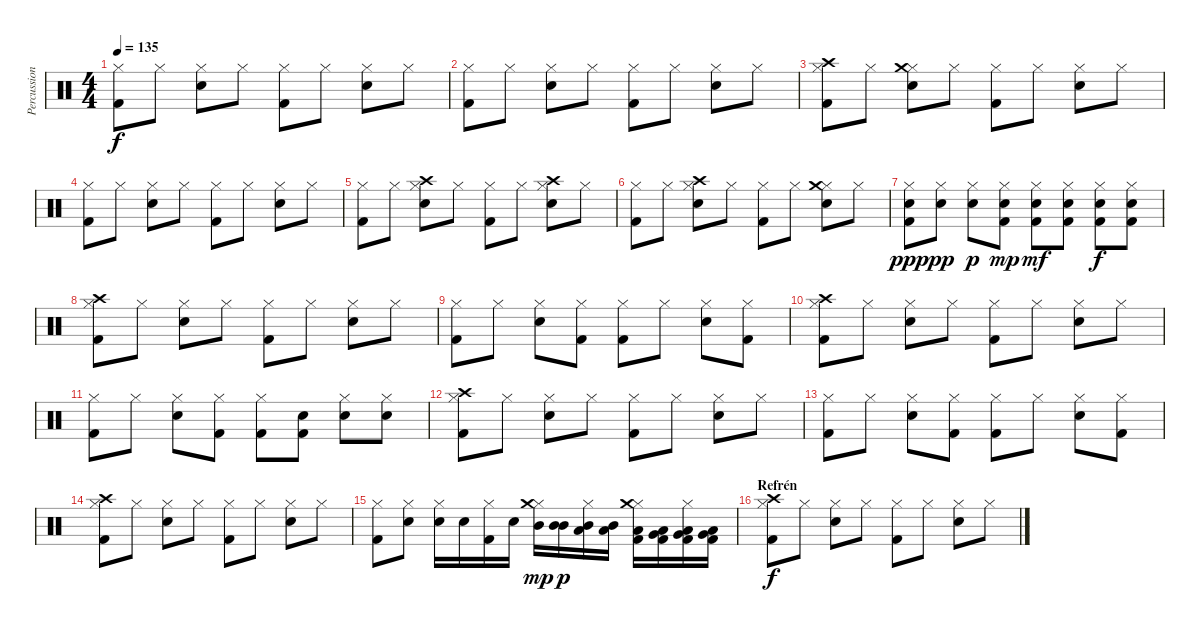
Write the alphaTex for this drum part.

\track ("Percussion" "Percussion") {instrument percussion}
\staff {score}
\articulation defaults
\ts (4 4)
\tempo 135
\clef neutral
\ks c
("Hi-Hat (closed)" "Kick (hit) 2").8{dy f} "Hi-Hat (closed)".8 ("Hi-Hat (closed)" "Electric Snare (hit)").8 "Hi-Hat (closed)".8 ("Hi-Hat (closed)" "Kick (hit) 2").8 "Hi-Hat (closed)".8 ("Hi-Hat (closed)" "Electric Snare (hit)").8 "Hi-Hat (closed)".8 |
("Hi-Hat (closed)" "Kick (hit) 2").8 "Hi-Hat (closed)".8 ("Hi-Hat (closed)" "Electric Snare (hit)").8 "Hi-Hat (closed)".8 ("Hi-Hat (closed)" "Kick (hit) 2").8 "Hi-Hat (closed)".8 ("Hi-Hat (closed)" "Electric Snare (hit)").8 "Hi-Hat (closed)".8 |
("Hi-Hat (closed)" "Kick (hit) 2" "Crash high (hit)").8 "Hi-Hat (closed)".8 ("Hi-Hat (closed)" "Crash medium (hit)" "Electric Snare (hit)").8 "Hi-Hat (closed)".8 ("Hi-Hat (closed)" "Kick (hit) 2").8 "Hi-Hat (closed)".8 ("Hi-Hat (closed)" "Electric Snare (hit)").8 "Hi-Hat (closed)".8 |
("Hi-Hat (closed)" "Kick (hit) 2").8 "Hi-Hat (closed)".8 ("Hi-Hat (closed)" "Electric Snare (hit)").8 "Hi-Hat (closed)".8 ("Hi-Hat (closed)" "Kick (hit) 2").8 "Hi-Hat (closed)".8 ("Hi-Hat (closed)" "Electric Snare (hit)").8 "Hi-Hat (closed)".8 |
("Hi-Hat (closed)" "Kick (hit) 2").8 "Hi-Hat (closed)".8 ("Hi-Hat (closed)" "Crash high (hit)" "Electric Snare (hit)").8 "Hi-Hat (closed)".8 ("Hi-Hat (closed)" "Kick (hit) 2").8 "Hi-Hat (closed)".8 ("Hi-Hat (closed)" "Crash high (hit)" "Electric Snare (hit)").8 "Hi-Hat (closed)".8 |
("Hi-Hat (closed)" "Kick (hit) 2").8 "Hi-Hat (closed)".8 ("Hi-Hat (closed)" "Crash high (hit)" "Electric Snare (hit)").8 "Hi-Hat (closed)".8 ("Hi-Hat (closed)" "Kick (hit) 2").8 "Hi-Hat (closed)".8 ("Hi-Hat (closed)" "Crash medium (hit)" "Electric Snare (hit)").8 "Hi-Hat (closed)".8 |
("Hi-Hat (closed)" "Kick (hit) 2" "Electric Snare (hit)").8{dy ppp} ("Hi-Hat (closed)" "Electric Snare (hit)").8{dy pp} ("Hi-Hat (closed)" "Electric Snare (hit)").8{dy p} ("Hi-Hat (closed)" "Kick (hit) 2" "Electric Snare (hit)").8{dy mp} ("Hi-Hat (closed)" "Kick (hit) 2" "Electric Snare (hit)").8{dy mf} ("Hi-Hat (closed)" "Kick (hit) 2" "Electric Snare (hit)").8 ("Hi-Hat (closed)" "Kick (hit) 2" "Electric Snare (hit)").8{dy f} ("Hi-Hat (closed)" "Kick (hit) 2" "Electric Snare (hit)").8 |
("Hi-Hat (closed)" "Kick (hit) 2" "Crash high (hit)").8 "Hi-Hat (closed)".8 ("Hi-Hat (closed)" "Electric Snare (hit)").8 "Hi-Hat (closed)".8 ("Hi-Hat (closed)" "Kick (hit) 2").8 "Hi-Hat (closed)".8 ("Hi-Hat (closed)" "Electric Snare (hit)").8 "Hi-Hat (closed)".8 |
("Hi-Hat (closed)" "Kick (hit) 2").8 "Hi-Hat (closed)".8 ("Hi-Hat (closed)" "Electric Snare (hit)").8 ("Hi-Hat (closed)" "Kick (hit) 2").8 ("Hi-Hat (closed)" "Kick (hit) 2").8 "Hi-Hat (closed)".8 ("Hi-Hat (closed)" "Electric Snare (hit)").8 ("Hi-Hat (closed)" "Kick (hit) 2").8 |
("Hi-Hat (closed)" "Kick (hit) 2" "Crash high (hit)").8 "Hi-Hat (closed)".8 ("Hi-Hat (closed)" "Electric Snare (hit)").8 "Hi-Hat (closed)".8 ("Hi-Hat (closed)" "Kick (hit) 2").8 "Hi-Hat (closed)".8 ("Hi-Hat (closed)" "Electric Snare (hit)").8 "Hi-Hat (closed)".8 |
("Hi-Hat (closed)" "Kick (hit) 2").8 "Hi-Hat (closed)".8 ("Hi-Hat (closed)" "Electric Snare (hit)").8 ("Hi-Hat (closed)" "Kick (hit) 2").8 ("Hi-Hat (closed)" "Kick (hit) 2").8 ("Kick (hit) 2" "Electric Snare (hit)").8 ("Hi-Hat (closed)" "Electric Snare (hit)").8 ("Hi-Hat (closed)" "Electric Snare (hit)").8 |
("Hi-Hat (closed)" "Kick (hit) 2" "Crash high (hit)").8 "Hi-Hat (closed)".8 ("Hi-Hat (closed)" "Electric Snare (hit)").8 "Hi-Hat (closed)".8 ("Hi-Hat (closed)" "Kick (hit) 2").8 "Hi-Hat (closed)".8 ("Hi-Hat (closed)" "Electric Snare (hit)").8 "Hi-Hat (closed)".8 |
("Hi-Hat (closed)" "Kick (hit) 2").8 "Hi-Hat (closed)".8 ("Hi-Hat (closed)" "Electric Snare (hit)").8 ("Hi-Hat (closed)" "Kick (hit) 2").8 ("Hi-Hat (closed)" "Kick (hit) 2").8 "Hi-Hat (closed)".8 ("Hi-Hat (closed)" "Electric Snare (hit)").8 ("Hi-Hat (closed)" "Kick (hit) 2").8 |
("Hi-Hat (closed)" "Kick (hit) 2" "Crash high (hit)").8 "Hi-Hat (closed)".8 ("Hi-Hat (closed)" "Electric Snare (hit)").8 "Hi-Hat (closed)".8 ("Hi-Hat (closed)" "Kick (hit) 2").8 "Hi-Hat (closed)".8 ("Hi-Hat (closed)" "Electric Snare (hit)").8 "Hi-Hat (closed)".8 |
("Hi-Hat (closed)" "Kick (hit) 2").8 ("Hi-Hat (closed)" "Electric Snare (hit)").8 ("Hi-Hat (closed)" "Electric Snare (hit)").16 "Electric Snare (hit)".16 ("Hi-Hat (closed)" "Kick (hit) 2").16 "Electric Snare (hit)".16 ("Hi-Hat (closed)" "Crash medium (hit)" "Mid Tom (hit)").16{dy mp} ("Mid Tom (hit)" "Mid Tom (hit)").16{dy p} ("Hi-Hat (closed)" "Low Tom (hit)" "Mid Tom (hit)").16 ("Low Tom (hit)" "Mid Tom (hit)").16 ("Hi-Hat (closed)" "Crash medium (hit)" "Kick (hit) 2" "Low Tom (hit)").16 ("Kick (hit) 2" "Very Low Tom (hit)" "Low Tom (hit)").16 ("Hi-Hat (closed)" "Kick (hit) 2" "Low Floor Tom (hit)" "Very Low Tom (hit)").16 ("Kick (hit) 2" "Low Floor Tom (hit)" "Very Low Tom (hit)").16 |
\section ("" "Refrén")
("Hi-Hat (closed)" "Kick (hit) 2" "Crash high (hit)").8{dy f} "Hi-Hat (closed)".8 ("Hi-Hat (closed)" "Electric Snare (hit)").8 "Hi-Hat (closed)".8 ("Hi-Hat (closed)" "Kick (hit) 2").8 "Hi-Hat (closed)".8 ("Hi-Hat (closed)" "Electric Snare (hit)").8 "Hi-Hat (closed)".8
